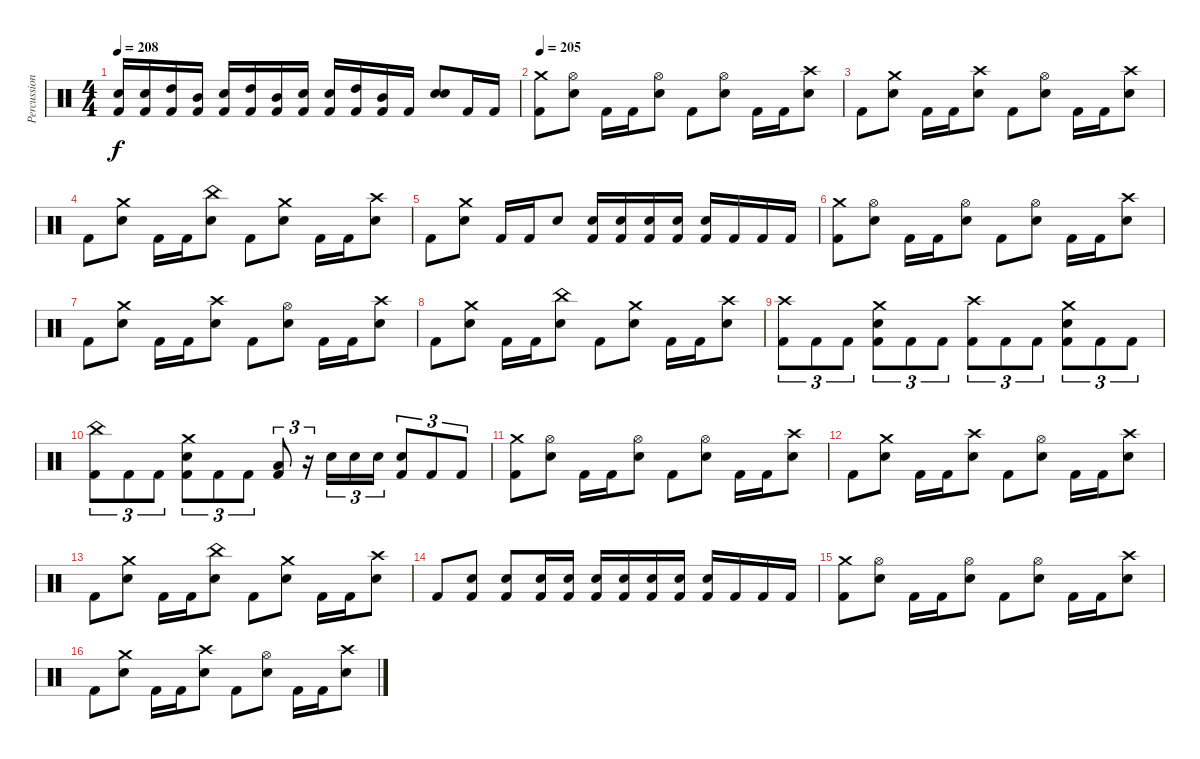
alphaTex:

\track ("Percussion" "Percussion") {instrument percussion}
\staff {score}
\articulation defaults
\ts (4 4)
\tempo 208
\clef neutral
\ks c
("Electric Snare (hit)" "Kick (hit) 2").16{dy f} ("Electric Snare (hit)" "Kick (hit) 2").16 ("High Tom (hit)" "Kick (hit) 2").16 ("Mid Tom (hit)" "Kick (hit) 2").16 ("Electric Snare (hit)" "Kick (hit) 2").16 ("High Tom (hit)" "Kick (hit) 2").16 ("Mid Tom (hit)" "Kick (hit) 2").16 ("Electric Snare (hit)" "Kick (hit) 2").16 ("Electric Snare (hit)" "Kick (hit) 2").16 ("High Tom (hit)" "Kick (hit) 2").16 ("Mid Tom (hit)" "Kick (hit) 2").16 "Kick (hit) 2".16 ("Electric Snare (hit)" "Electric Snare (hit)").8{bu 480} "Kick (hit) 2".16 "Kick (hit) 2".16 |
\tempo 205
("Crash medium (hit)" "Kick (hit) 2").8 ("Hi-Hat (open)" "Electric Snare (hit)").8 "Kick (hit) 2".16 "Kick (hit) 2".16 ("Hi-Hat (open)" "Electric Snare (hit)").8 "Kick (hit) 2".8 ("Hi-Hat (open)" "Electric Snare (hit)").8 "Kick (hit) 2".16 "Kick (hit) 2".16 ("Crash high (hit)" "Electric Snare (hit)").8 |
"Kick (hit) 2".8 ("Crash medium (hit)" "Electric Snare (hit)").8 "Kick (hit) 2".16 "Kick (hit) 2".16 ("Crash high (hit)" "Electric Snare (hit)").8 "Kick (hit) 2".8 ("Hi-Hat (open)" "Electric Snare (hit)").8 "Kick (hit) 2".16 "Kick (hit) 2".16 ("Crash high (hit)" "Electric Snare (hit)").8 |
"Kick (hit) 2".8 ("Crash medium (hit)" "Electric Snare (hit)").8 "Kick (hit) 2".16 "Kick (hit) 2".16 ("China (hit)" "Electric Snare (hit)").8 "Kick (hit) 2".8 ("Crash medium (hit)" "Electric Snare (hit)").8 "Kick (hit) 2".16 "Kick (hit) 2".16 ("Crash high (hit)" "Electric Snare (hit)").8 |
"Kick (hit) 2".8 ("Crash medium (hit)" "Electric Snare (hit)").8 "Kick (hit) 2".16 "Kick (hit) 2".16 "Electric Snare (hit)".8 ("Electric Snare (hit)" "Kick (hit) 2").16 ("Electric Snare (hit)" "Kick (hit) 2").16 ("Electric Snare (hit)" "Kick (hit) 2").16 ("Electric Snare (hit)" "Kick (hit) 2").16 ("Electric Snare (hit)" "Kick (hit) 2").16 "Kick (hit) 2".16 "Kick (hit) 2".16 "Kick (hit) 2".16 |
("Crash medium (hit)" "Kick (hit) 2").8 ("Hi-Hat (open)" "Electric Snare (hit)").8 "Kick (hit) 2".16 "Kick (hit) 2".16 ("Hi-Hat (open)" "Electric Snare (hit)").8 "Kick (hit) 2".8 ("Hi-Hat (open)" "Electric Snare (hit)").8 "Kick (hit) 2".16 "Kick (hit) 2".16 ("Crash high (hit)" "Electric Snare (hit)").8 |
"Kick (hit) 2".8 ("Crash medium (hit)" "Electric Snare (hit)").8 "Kick (hit) 2".16 "Kick (hit) 2".16 ("Crash high (hit)" "Electric Snare (hit)").8 "Kick (hit) 2".8 ("Hi-Hat (open)" "Electric Snare (hit)").8 "Kick (hit) 2".16 "Kick (hit) 2".16 ("Crash high (hit)" "Electric Snare (hit)").8 |
"Kick (hit) 2".8 ("Crash medium (hit)" "Electric Snare (hit)").8 "Kick (hit) 2".16 "Kick (hit) 2".16 ("China (hit)" "Electric Snare (hit)").8 "Kick (hit) 2".8 ("Crash medium (hit)" "Electric Snare (hit)").8 "Kick (hit) 2".16 "Kick (hit) 2".16 ("Crash high (hit)" "Electric Snare (hit)").8 |
("Crash high (hit)" "Kick (hit) 2").8{tu (3 2)} "Kick (hit) 2".8{tu (3 2)} "Kick (hit) 2".8{tu (3 2)} ("Crash medium (hit)" "Electric Snare (hit)" "Kick (hit) 2").8{tu (3 2)} "Kick (hit) 2".8{tu (3 2)} "Kick (hit) 2".8{tu (3 2)} ("Crash high (hit)" "Kick (hit) 2").8{tu (3 2)} "Kick (hit) 2".8{tu (3 2)} "Kick (hit) 2".8{tu (3 2)} ("Crash medium (hit)" "Electric Snare (hit)" "Kick (hit) 2").8{tu (3 2)} "Kick (hit) 2".8{tu (3 2)} "Kick (hit) 2".8{tu (3 2)} |
("China (hit)" "Kick (hit) 2").8{tu (3 2)} "Kick (hit) 2".8{tu (3 2)} "Kick (hit) 2".8{tu (3 2)} ("Crash medium (hit)" "Electric Snare (hit)" "Kick (hit) 2").8{tu (3 2)} "Kick (hit) 2".8{tu (3 2)} "Kick (hit) 2".8{tu (3 2)} ("Low Tom (hit)" "Kick (hit) 2").8{tu (3 2)} r.16{tu (3 2)} "Electric Snare (hit)".16{tu (3 2)} "Electric Snare (hit)".16{tu (3 2)} "Electric Snare (hit)".16{tu (3 2)} ("Electric Snare (hit)" "Kick (hit) 2").8{tu (3 2)} "Kick (hit) 2".8{tu (3 2)} "Kick (hit) 2".8{tu (3 2)} |
("Crash medium (hit)" "Kick (hit) 2").8 ("Hi-Hat (open)" "Electric Snare (hit)").8 "Kick (hit) 2".16 "Kick (hit) 2".16 ("Hi-Hat (open)" "Electric Snare (hit)").8 "Kick (hit) 2".8 ("Hi-Hat (open)" "Electric Snare (hit)").8 "Kick (hit) 2".16 "Kick (hit) 2".16 ("Crash high (hit)" "Electric Snare (hit)").8 |
"Kick (hit) 2".8 ("Crash medium (hit)" "Electric Snare (hit)").8 "Kick (hit) 2".16 "Kick (hit) 2".16 ("Crash high (hit)" "Electric Snare (hit)").8 "Kick (hit) 2".8 ("Hi-Hat (open)" "Electric Snare (hit)").8 "Kick (hit) 2".16 "Kick (hit) 2".16 ("Crash high (hit)" "Electric Snare (hit)").8 |
"Kick (hit) 2".8 ("Crash medium (hit)" "Electric Snare (hit)").8 "Kick (hit) 2".16 "Kick (hit) 2".16 ("China (hit)" "Electric Snare (hit)").8 "Kick (hit) 2".8 ("Crash medium (hit)" "Electric Snare (hit)").8 "Kick (hit) 2".16 "Kick (hit) 2".16 ("Crash high (hit)" "Electric Snare (hit)").8 |
"Kick (hit) 2".8 ("Electric Snare (hit)" "Kick (hit) 2").8 ("Electric Snare (hit)" "Kick (hit) 2").8 ("Electric Snare (hit)" "Kick (hit) 2").16 ("Electric Snare (hit)" "Kick (hit) 2").16 ("Electric Snare (hit)" "Kick (hit) 2").16 ("Electric Snare (hit)" "Kick (hit) 2").16 ("Electric Snare (hit)" "Kick (hit) 2").16 ("Electric Snare (hit)" "Kick (hit) 2").16 ("Electric Snare (hit)" "Kick (hit) 2").16 "Kick (hit) 2".16 "Kick (hit) 2".16 "Kick (hit) 2".16 |
("Crash medium (hit)" "Kick (hit) 2").8 ("Hi-Hat (open)" "Electric Snare (hit)").8 "Kick (hit) 2".16 "Kick (hit) 2".16 ("Hi-Hat (open)" "Electric Snare (hit)").8 "Kick (hit) 2".8 ("Hi-Hat (open)" "Electric Snare (hit)").8 "Kick (hit) 2".16 "Kick (hit) 2".16 ("Crash high (hit)" "Electric Snare (hit)").8 |
"Kick (hit) 2".8 ("Crash medium (hit)" "Electric Snare (hit)").8 "Kick (hit) 2".16 "Kick (hit) 2".16 ("Crash high (hit)" "Electric Snare (hit)").8 "Kick (hit) 2".8 ("Hi-Hat (open)" "Electric Snare (hit)").8 "Kick (hit) 2".16 "Kick (hit) 2".16 ("Crash high (hit)" "Electric Snare (hit)").8
